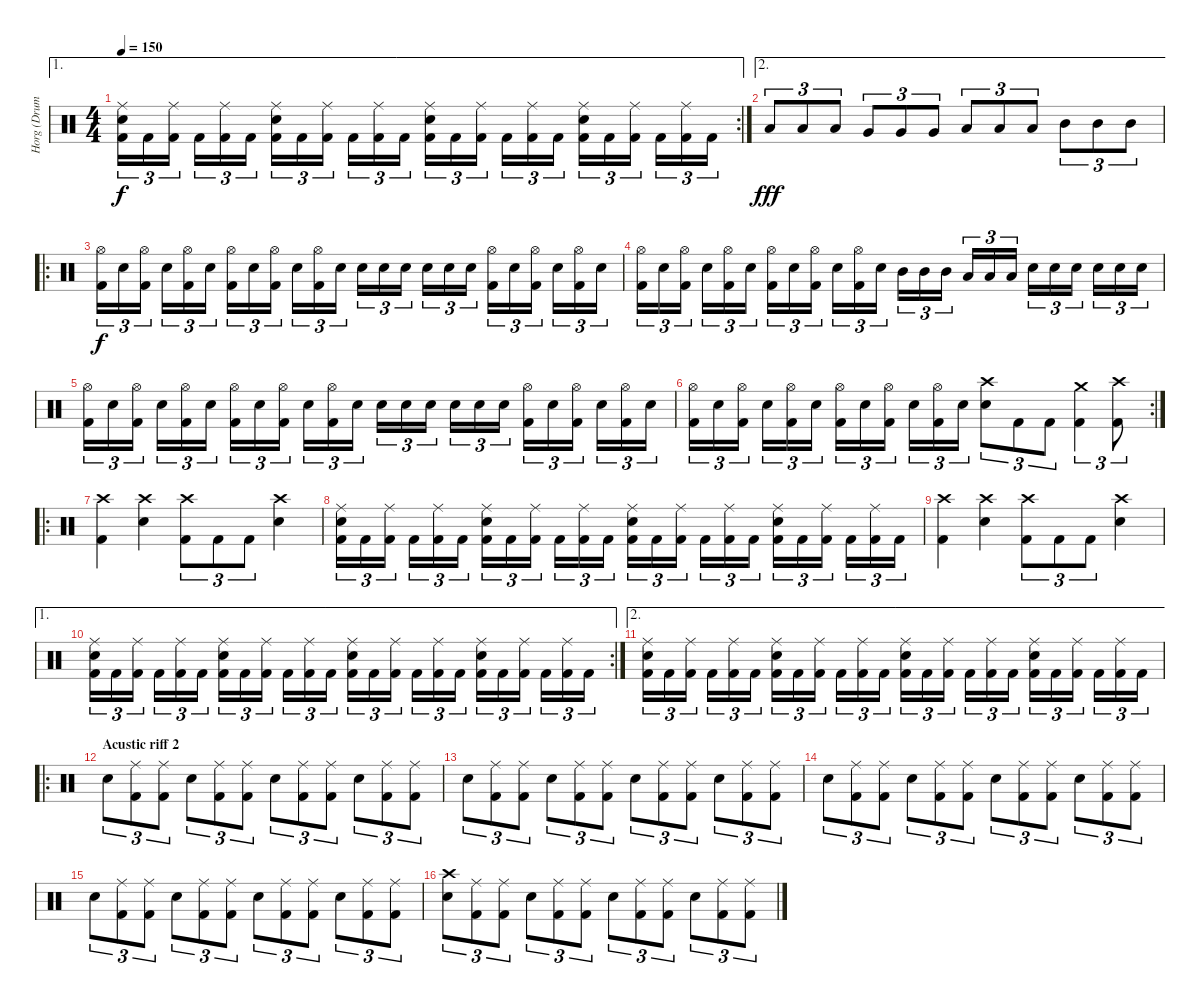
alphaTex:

\track ("Horg (Drums)" "Horg (Drum") {instrument percussion}
\staff {score}
\articulation defaults
\ae 1
\rc 2
\ts (4 4)
\tempo 150
\clef neutral
\ks c
("Ride (middle)" "Electric Snare (hit)" "Kick (hit) 2").16{tu (3 2) dy f} "Kick (hit) 2".16{tu (3 2)} ("Ride (middle)" "Kick (hit) 2").16{tu (3 2)} "Kick (hit) 2".16{tu (3 2)} ("Ride (middle)" "Kick (hit) 2").16{tu (3 2)} "Kick (hit) 2".16{tu (3 2)} ("Ride (middle)" "Electric Snare (hit)" "Kick (hit) 2").16{tu (3 2)} "Kick (hit) 2".16{tu (3 2)} ("Ride (middle)" "Kick (hit) 2").16{tu (3 2)} "Kick (hit) 2".16{tu (3 2)} ("Ride (middle)" "Kick (hit) 2").16{tu (3 2)} "Kick (hit) 2".16{tu (3 2)} ("Ride (middle)" "Electric Snare (hit)" "Kick (hit) 2").16{tu (3 2)} "Kick (hit) 2".16{tu (3 2)} ("Ride (middle)" "Kick (hit) 2").16{tu (3 2)} "Kick (hit) 2".16{tu (3 2)} ("Ride (middle)" "Kick (hit) 2").16{tu (3 2)} "Kick (hit) 2".16{tu (3 2)} ("Ride (middle)" "Electric Snare (hit)" "Kick (hit) 2").16{tu (3 2)} "Kick (hit) 2".16{tu (3 2)} ("Ride (middle)" "Kick (hit) 2").16{tu (3 2)} "Kick (hit) 2".16{tu (3 2)} ("Ride (middle)" "Kick (hit) 2").16{tu (3 2)} "Kick (hit) 2".16{tu (3 2)} |
\ae 2 "Low Floor Tom (hit)".8{tu (3 2) dy fff} "Low Floor Tom (hit)".8{tu (3 2)} "Low Floor Tom (hit)".8{tu (3 2)} "Very Low Tom (hit)".8{tu (3 2)} "Very Low Tom (hit)".8{tu (3 2)} "Very Low Tom (hit)".8{tu (3 2)} "Low Tom (hit)".8{tu (3 2)} "Low Tom (hit)".8{tu (3 2)} "Low Tom (hit)".8{tu (3 2)} "Mid Tom (hit)".8{tu (3 2)} "Mid Tom (hit)".8{tu (3 2)} "Mid Tom (hit)".8{tu (3 2)}
|
\ro
("Hi-Hat (open)" "Kick (hit) 2").16{tu (3 2) dy f} "Electric Snare (hit)".16{tu (3 2)} ("Hi-Hat (open)" "Kick (hit) 2").16{tu (3 2)} "Electric Snare (hit)".16{tu (3 2)} ("Hi-Hat (open)" "Kick (hit) 2").16{tu (3 2)} "Electric Snare (hit)".16{tu (3 2)} ("Hi-Hat (open)" "Kick (hit) 2").16{tu (3 2)} "Electric Snare (hit)".16{tu (3 2)} ("Hi-Hat (open)" "Kick (hit) 2").16{tu (3 2)} "Electric Snare (hit)".16{tu (3 2)} ("Hi-Hat (open)" "Kick (hit) 2").16{tu (3 2)} "Electric Snare (hit)".16{tu (3 2)} "Electric Snare (hit)".16{tu (3 2)} "Electric Snare (hit)".16{tu (3 2)} "Electric Snare (hit)".16{tu (3 2)} "Electric Snare (hit)".16{tu (3 2)} "Electric Snare (hit)".16{tu (3 2)} "Electric Snare (hit)".16{tu (3 2)} ("Hi-Hat (open)" "Kick (hit) 2").16{tu (3 2)} "Electric Snare (hit)".16{tu (3 2)} ("Hi-Hat (open)" "Kick (hit) 2").16{tu (3 2)} "Electric Snare (hit)".16{tu (3 2)} ("Hi-Hat (open)" "Kick (hit) 2").16{tu (3 2)} "Electric Snare (hit)".16{tu (3 2)} |
("Hi-Hat (open)" "Kick (hit) 2").16{tu (3 2)} "Electric Snare (hit)".16{tu (3 2)} ("Hi-Hat (open)" "Kick (hit) 2").16{tu (3 2)} "Electric Snare (hit)".16{tu (3 2)} ("Hi-Hat (open)" "Kick (hit) 2").16{tu (3 2)} "Electric Snare (hit)".16{tu (3 2)} ("Hi-Hat (open)" "Kick (hit) 2").16{tu (3 2)} "Electric Snare (hit)".16{tu (3 2)} ("Hi-Hat (open)" "Kick (hit) 2").16{tu (3 2)} "Electric Snare (hit)".16{tu (3 2)} ("Hi-Hat (open)" "Kick (hit) 2").16{tu (3 2)} "Electric Snare (hit)".16{tu (3 2)} "Mid Tom (hit)".16{tu (3 2)} "Mid Tom (hit)".16{tu (3 2)} "Mid Tom (hit)".16{tu (3 2)} "Low Tom (hit)".16{tu (3 2)} "Low Tom (hit)".16{tu (3 2)} "Low Tom (hit)".16{tu (3 2)} "Electric Snare (hit)".16{tu (3 2)} "Electric Snare (hit)".16{tu (3 2)} "Electric Snare (hit)".16{tu (3 2)} "Electric Snare (hit)".16{tu (3 2)} "Electric Snare (hit)".16{tu (3 2)} "Electric Snare (hit)".16{tu (3 2)} |
("Hi-Hat (open)" "Kick (hit) 2").16{tu (3 2)} "Electric Snare (hit)".16{tu (3 2)} ("Hi-Hat (open)" "Kick (hit) 2").16{tu (3 2)} "Electric Snare (hit)".16{tu (3 2)} ("Hi-Hat (open)" "Kick (hit) 2").16{tu (3 2)} "Electric Snare (hit)".16{tu (3 2)} ("Hi-Hat (open)" "Kick (hit) 2").16{tu (3 2)} "Electric Snare (hit)".16{tu (3 2)} ("Hi-Hat (open)" "Kick (hit) 2").16{tu (3 2)} "Electric Snare (hit)".16{tu (3 2)} ("Hi-Hat (open)" "Kick (hit) 2").16{tu (3 2)} "Electric Snare (hit)".16{tu (3 2)} "Electric Snare (hit)".16{tu (3 2)} "Electric Snare (hit)".16{tu (3 2)} "Electric Snare (hit)".16{tu (3 2)} "Electric Snare (hit)".16{tu (3 2)} "Electric Snare (hit)".16{tu (3 2)} "Electric Snare (hit)".16{tu (3 2)} ("Hi-Hat (open)" "Kick (hit) 2").16{tu (3 2)} "Electric Snare (hit)".16{tu (3 2)} ("Hi-Hat (open)" "Kick (hit) 2").16{tu (3 2)} "Electric Snare (hit)".16{tu (3 2)} ("Hi-Hat (open)" "Kick (hit) 2").16{tu (3 2)} "Electric Snare (hit)".16{tu (3 2)} |
\rc 2
("Hi-Hat (open)" "Kick (hit) 2").16{tu (3 2)} "Electric Snare (hit)".16{tu (3 2)} ("Hi-Hat (open)" "Kick (hit) 2").16{tu (3 2)} "Electric Snare (hit)".16{tu (3 2)} ("Hi-Hat (open)" "Kick (hit) 2").16{tu (3 2)} "Electric Snare (hit)".16{tu (3 2)} ("Hi-Hat (open)" "Kick (hit) 2").16{tu (3 2)} "Electric Snare (hit)".16{tu (3 2)} ("Hi-Hat (open)" "Kick (hit) 2").16{tu (3 2)} "Electric Snare (hit)".16{tu (3 2)} ("Hi-Hat (open)" "Kick (hit) 2").16{tu (3 2)} "Electric Snare (hit)".16{tu (3 2)} ("Crash high (hit)" "Electric Snare (hit)").8{tu (3 2)} "Kick (hit) 2".8{tu (3 2)} "Kick (hit) 2".8{tu (3 2)} ("Crash medium (hit)" "Kick (hit) 2").4{tu (3 2)} ("Crash high (hit)" "Kick (hit) 2").8{tu (3 2)} |
\ro
("Crash high (hit)" "Kick (hit) 2").4 ("Crash high (hit)" "Electric Snare (hit)").4 ("Crash high (hit)" "Kick (hit) 2").8{tu (3 2)} "Kick (hit) 2".8{tu (3 2)} "Kick (hit) 2".8{tu (3 2)} ("Crash high (hit)" "Electric Snare (hit)").4 |
("Ride (middle)" "Electric Snare (hit)" "Kick (hit) 2").16{tu (3 2)} "Kick (hit) 2".16{tu (3 2)} ("Ride (middle)" "Kick (hit) 2").16{tu (3 2)} "Kick (hit) 2".16{tu (3 2)} ("Ride (middle)" "Kick (hit) 2").16{tu (3 2)} "Kick (hit) 2".16{tu (3 2)} ("Ride (middle)" "Electric Snare (hit)" "Kick (hit) 2").16{tu (3 2)} "Kick (hit) 2".16{tu (3 2)} ("Ride (middle)" "Kick (hit) 2").16{tu (3 2)} "Kick (hit) 2".16{tu (3 2)} ("Ride (middle)" "Kick (hit) 2").16{tu (3 2)} "Kick (hit) 2".16{tu (3 2)} ("Ride (middle)" "Electric Snare (hit)" "Kick (hit) 2").16{tu (3 2)} "Kick (hit) 2".16{tu (3 2)} ("Ride (middle)" "Kick (hit) 2").16{tu (3 2)} "Kick (hit) 2".16{tu (3 2)} ("Ride (middle)" "Kick (hit) 2").16{tu (3 2)} "Kick (hit) 2".16{tu (3 2)} ("Ride (middle)" "Electric Snare (hit)" "Kick (hit) 2").16{tu (3 2)} "Kick (hit) 2".16{tu (3 2)} ("Ride (middle)" "Kick (hit) 2").16{tu (3 2)} "Kick (hit) 2".16{tu (3 2)} ("Ride (middle)" "Kick (hit) 2").16{tu (3 2)} "Kick (hit) 2".16{tu (3 2)} |
("Crash high (hit)" "Kick (hit) 2").4 ("Crash high (hit)" "Electric Snare (hit)").4 ("Crash high (hit)" "Kick (hit) 2").8{tu (3 2)} "Kick (hit) 2".8{tu (3 2)} "Kick (hit) 2".8{tu (3 2)} ("Crash high (hit)" "Electric Snare (hit)").4 |
\ae 1
\rc 2
("Ride (middle)" "Electric Snare (hit)" "Kick (hit) 2").16{tu (3 2)} "Kick (hit) 2".16{tu (3 2)} ("Ride (middle)" "Kick (hit) 2").16{tu (3 2)} "Kick (hit) 2".16{tu (3 2)} ("Ride (middle)" "Kick (hit) 2").16{tu (3 2)} "Kick (hit) 2".16{tu (3 2)} ("Ride (middle)" "Electric Snare (hit)" "Kick (hit) 2").16{tu (3 2)} "Kick (hit) 2".16{tu (3 2)} ("Ride (middle)" "Kick (hit) 2").16{tu (3 2)} "Kick (hit) 2".16{tu (3 2)} ("Ride (middle)" "Kick (hit) 2").16{tu (3 2)} "Kick (hit) 2".16{tu (3 2)} ("Ride (middle)" "Electric Snare (hit)" "Kick (hit) 2").16{tu (3 2)} "Kick (hit) 2".16{tu (3 2)} ("Ride (middle)" "Kick (hit) 2").16{tu (3 2)} "Kick (hit) 2".16{tu (3 2)} ("Ride (middle)" "Kick (hit) 2").16{tu (3 2)} "Kick (hit) 2".16{tu (3 2)} ("Ride (middle)" "Electric Snare (hit)" "Kick (hit) 2").16{tu (3 2)} "Kick (hit) 2".16{tu (3 2)} ("Ride (middle)" "Kick (hit) 2").16{tu (3 2)} "Kick (hit) 2".16{tu (3 2)} ("Ride (middle)" "Kick (hit) 2").16{tu (3 2)} "Kick (hit) 2".16{tu (3 2)} |
\ae 2
("Ride (middle)" "Electric Snare (hit)" "Kick (hit) 2").16{tu (3 2)} "Kick (hit) 2".16{tu (3 2)} ("Ride (middle)" "Kick (hit) 2").16{tu (3 2)} "Kick (hit) 2".16{tu (3 2)} ("Ride (middle)" "Kick (hit) 2").16{tu (3 2)} "Kick (hit) 2".16{tu (3 2)} ("Ride (middle)" "Electric Snare (hit)" "Kick (hit) 2").16{tu (3 2)} "Kick (hit) 2".16{tu (3 2)} ("Ride (middle)" "Kick (hit) 2").16{tu (3 2)} "Kick (hit) 2".16{tu (3 2)} ("Ride (middle)" "Kick (hit) 2").16{tu (3 2)} "Kick (hit) 2".16{tu (3 2)} ("Ride (middle)" "Electric Snare (hit)" "Kick (hit) 2").16{tu (3 2)} "Kick (hit) 2".16{tu (3 2)} ("Ride (middle)" "Kick (hit) 2").16{tu (3 2)} "Kick (hit) 2".16{tu (3 2)} ("Ride (middle)" "Kick (hit) 2").16{tu (3 2)} "Kick (hit) 2".16{tu (3 2)} ("Ride (middle)" "Electric Snare (hit)" "Kick (hit) 2").16{tu (3 2)} "Kick (hit) 2".16{tu (3 2)} ("Ride (middle)" "Kick (hit) 2").16{tu (3 2)} "Kick (hit) 2".16{tu (3 2)} ("Ride (middle)" "Kick (hit) 2").16{tu (3 2)} "Kick (hit) 2".16{tu (3 2)} |
\ro
\section ("" "Acustic riff 2")
"Electric Snare (hit)".8{tu (3 2)} ("Ride (middle)" "Kick (hit) 2").8{tu (3 2)} ("Ride (middle)" "Kick (hit) 2").8{tu (3 2)} "Electric Snare (hit)".8{tu (3 2)} ("Ride (middle)" "Kick (hit) 2").8{tu (3 2)} ("Ride (middle)" "Kick (hit) 2").8{tu (3 2)} "Electric Snare (hit)".8{tu (3 2)} ("Ride (middle)" "Kick (hit) 2").8{tu (3 2)} ("Ride (middle)" "Kick (hit) 2").8{tu (3 2)} "Electric Snare (hit)".8{tu (3 2)} ("Ride (middle)" "Kick (hit) 2").8{tu (3 2)} ("Ride (middle)" "Kick (hit) 2").8{tu (3 2)} |
"Electric Snare (hit)".8{tu (3 2)} ("Ride (middle)" "Kick (hit) 2").8{tu (3 2)} ("Ride (middle)" "Kick (hit) 2").8{tu (3 2)} "Electric Snare (hit)".8{tu (3 2)} ("Ride (middle)" "Kick (hit) 2").8{tu (3 2)} ("Ride (middle)" "Kick (hit) 2").8{tu (3 2)} "Electric Snare (hit)".8{tu (3 2)} ("Ride (middle)" "Kick (hit) 2").8{tu (3 2)} ("Ride (middle)" "Kick (hit) 2").8{tu (3 2)} "Electric Snare (hit)".8{tu (3 2)} ("Ride (middle)" "Kick (hit) 2").8{tu (3 2)} ("Ride (middle)" "Kick (hit) 2").8{tu (3 2)} |
"Electric Snare (hit)".8{tu (3 2)} ("Ride (middle)" "Kick (hit) 2").8{tu (3 2)} ("Ride (middle)" "Kick (hit) 2").8{tu (3 2)} "Electric Snare (hit)".8{tu (3 2)} ("Ride (middle)" "Kick (hit) 2").8{tu (3 2)} ("Ride (middle)" "Kick (hit) 2").8{tu (3 2)} "Electric Snare (hit)".8{tu (3 2)} ("Ride (middle)" "Kick (hit) 2").8{tu (3 2)} ("Ride (middle)" "Kick (hit) 2").8{tu (3 2)} "Electric Snare (hit)".8{tu (3 2)} ("Ride (middle)" "Kick (hit) 2").8{tu (3 2)} ("Ride (middle)" "Kick (hit) 2").8{tu (3 2)} |
"Electric Snare (hit)".8{tu (3 2)} ("Ride (middle)" "Kick (hit) 2").8{tu (3 2)} ("Ride (middle)" "Kick (hit) 2").8{tu (3 2)} "Electric Snare (hit)".8{tu (3 2)} ("Ride (middle)" "Kick (hit) 2").8{tu (3 2)} ("Ride (middle)" "Kick (hit) 2").8{tu (3 2)} "Electric Snare (hit)".8{tu (3 2)} ("Ride (middle)" "Kick (hit) 2").8{tu (3 2)} ("Ride (middle)" "Kick (hit) 2").8{tu (3 2)} "Electric Snare (hit)".8{tu (3 2)} ("Ride (middle)" "Kick (hit) 2").8{tu (3 2)} ("Ride (middle)" "Kick (hit) 2").8{tu (3 2)} |
("Crash high (hit)" "Electric Snare (hit)").8{tu (3 2)} ("Ride (middle)" "Kick (hit) 2").8{tu (3 2)} ("Ride (middle)" "Kick (hit) 2").8{tu (3 2)} "Electric Snare (hit)".8{tu (3 2)} ("Ride (middle)" "Kick (hit) 2").8{tu (3 2)} ("Ride (middle)" "Kick (hit) 2").8{tu (3 2)} "Electric Snare (hit)".8{tu (3 2)} ("Ride (middle)" "Kick (hit) 2").8{tu (3 2)} ("Ride (middle)" "Kick (hit) 2").8{tu (3 2)} "Electric Snare (hit)".8{tu (3 2)} ("Ride (middle)" "Kick (hit) 2").8{tu (3 2)} ("Ride (middle)" "Kick (hit) 2").8{tu (3 2)}
